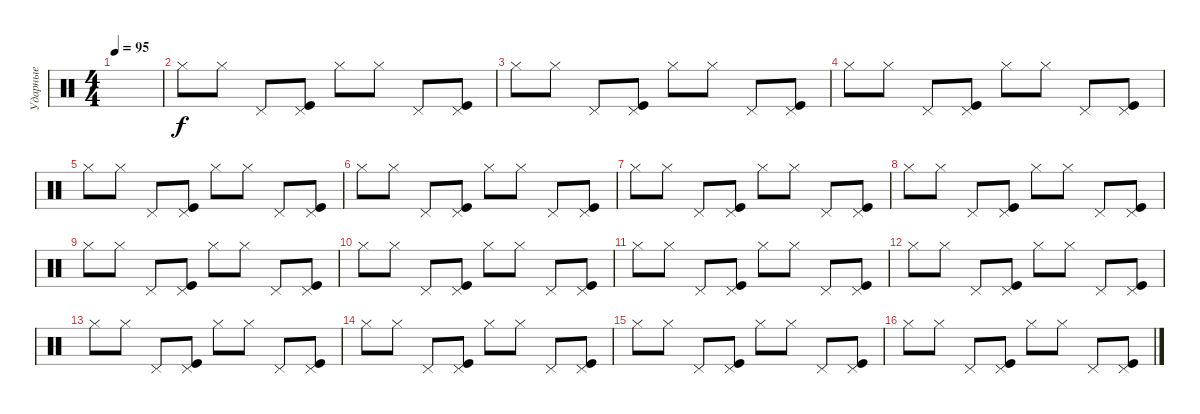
\track ("Ударные" "Ударные") {instrument percussion}
\staff {score}
\articulation defaults
\ts (4 4)
\tempo 95
\clef neutral
\ks c
|
"Hi-Hat (closed)".8 "Hi-Hat (closed)".8 "Pedal Hi-Hat (hit)".8 ("Kick (hit)" "Pedal Hi-Hat (hit)").8 "Hi-Hat (closed)".8 "Hi-Hat (closed)".8 "Pedal Hi-Hat (hit)".8 ("Kick (hit)" "Pedal Hi-Hat (hit)").8 |
"Hi-Hat (closed)".8 "Hi-Hat (closed)".8 "Pedal Hi-Hat (hit)".8 ("Kick (hit)" "Pedal Hi-Hat (hit)").8 "Hi-Hat (closed)".8 "Hi-Hat (closed)".8 "Pedal Hi-Hat (hit)".8 ("Kick (hit)" "Pedal Hi-Hat (hit)").8 |
"Hi-Hat (closed)".8 "Hi-Hat (closed)".8 "Pedal Hi-Hat (hit)".8 ("Kick (hit)" "Pedal Hi-Hat (hit)").8 "Hi-Hat (closed)".8 "Hi-Hat (closed)".8 "Pedal Hi-Hat (hit)".8 ("Kick (hit)" "Pedal Hi-Hat (hit)").8 |
"Hi-Hat (closed)".8 "Hi-Hat (closed)".8 "Pedal Hi-Hat (hit)".8 ("Kick (hit)" "Pedal Hi-Hat (hit)").8 "Hi-Hat (closed)".8 "Hi-Hat (closed)".8 "Pedal Hi-Hat (hit)".8 ("Kick (hit)" "Pedal Hi-Hat (hit)").8 |
"Hi-Hat (closed)".8 "Hi-Hat (closed)".8 "Pedal Hi-Hat (hit)".8 ("Kick (hit)" "Pedal Hi-Hat (hit)").8 "Hi-Hat (closed)".8 "Hi-Hat (closed)".8 "Pedal Hi-Hat (hit)".8 ("Kick (hit)" "Pedal Hi-Hat (hit)").8 |
"Hi-Hat (closed)".8 "Hi-Hat (closed)".8 "Pedal Hi-Hat (hit)".8 ("Kick (hit)" "Pedal Hi-Hat (hit)").8 "Hi-Hat (closed)".8 "Hi-Hat (closed)".8 "Pedal Hi-Hat (hit)".8 ("Kick (hit)" "Pedal Hi-Hat (hit)").8 |
"Hi-Hat (closed)".8 "Hi-Hat (closed)".8 "Pedal Hi-Hat (hit)".8 ("Kick (hit)" "Pedal Hi-Hat (hit)").8 "Hi-Hat (closed)".8 "Hi-Hat (closed)".8 "Pedal Hi-Hat (hit)".8 ("Kick (hit)" "Pedal Hi-Hat (hit)").8 |
"Hi-Hat (closed)".8 "Hi-Hat (closed)".8 "Pedal Hi-Hat (hit)".8 ("Kick (hit)" "Pedal Hi-Hat (hit)").8 "Hi-Hat (closed)".8 "Hi-Hat (closed)".8 "Pedal Hi-Hat (hit)".8 ("Kick (hit)" "Pedal Hi-Hat (hit)").8 |
"Hi-Hat (closed)".8 "Hi-Hat (closed)".8 "Pedal Hi-Hat (hit)".8 ("Kick (hit)" "Pedal Hi-Hat (hit)").8 "Hi-Hat (closed)".8 "Hi-Hat (closed)".8 "Pedal Hi-Hat (hit)".8 ("Kick (hit)" "Pedal Hi-Hat (hit)").8 |
"Hi-Hat (closed)".8 "Hi-Hat (closed)".8 "Pedal Hi-Hat (hit)".8 ("Kick (hit)" "Pedal Hi-Hat (hit)").8 "Hi-Hat (closed)".8 "Hi-Hat (closed)".8 "Pedal Hi-Hat (hit)".8 ("Kick (hit)" "Pedal Hi-Hat (hit)").8 |
"Hi-Hat (closed)".8 "Hi-Hat (closed)".8 "Pedal Hi-Hat (hit)".8 ("Kick (hit)" "Pedal Hi-Hat (hit)").8 "Hi-Hat (closed)".8 "Hi-Hat (closed)".8 "Pedal Hi-Hat (hit)".8 ("Kick (hit)" "Pedal Hi-Hat (hit)").8 |
"Hi-Hat (closed)".8 "Hi-Hat (closed)".8 "Pedal Hi-Hat (hit)".8 ("Kick (hit)" "Pedal Hi-Hat (hit)").8 "Hi-Hat (closed)".8 "Hi-Hat (closed)".8 "Pedal Hi-Hat (hit)".8 ("Kick (hit)" "Pedal Hi-Hat (hit)").8 |
"Hi-Hat (closed)".8 "Hi-Hat (closed)".8 "Pedal Hi-Hat (hit)".8 ("Kick (hit)" "Pedal Hi-Hat (hit)").8 "Hi-Hat (closed)".8 "Hi-Hat (closed)".8 "Pedal Hi-Hat (hit)".8 ("Kick (hit)" "Pedal Hi-Hat (hit)").8 |
"Hi-Hat (closed)".8 "Hi-Hat (closed)".8 "Pedal Hi-Hat (hit)".8 ("Kick (hit)" "Pedal Hi-Hat (hit)").8 "Hi-Hat (closed)".8 "Hi-Hat (closed)".8 "Pedal Hi-Hat (hit)".8 ("Kick (hit)" "Pedal Hi-Hat (hit)").8 |
"Hi-Hat (closed)".8 "Hi-Hat (closed)".8 "Pedal Hi-Hat (hit)".8 ("Kick (hit)" "Pedal Hi-Hat (hit)").8 "Hi-Hat (closed)".8 "Hi-Hat (closed)".8 "Pedal Hi-Hat (hit)".8 ("Kick (hit)" "Pedal Hi-Hat (hit)").8
